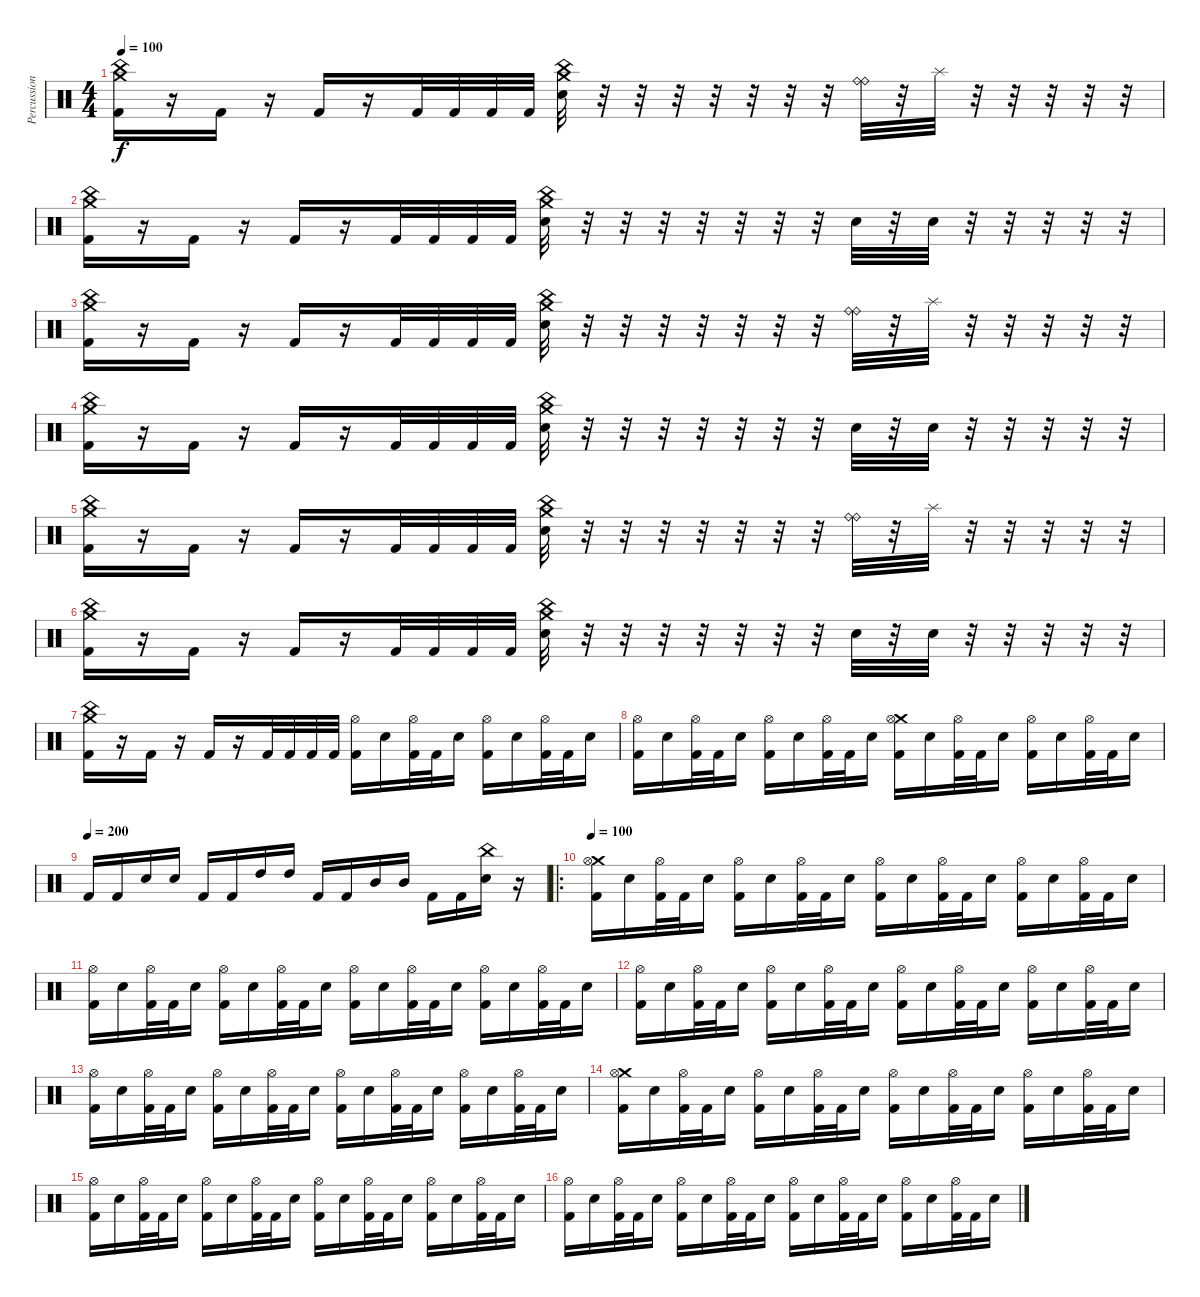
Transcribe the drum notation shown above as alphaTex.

\track ("Percussion" "Percussion") {instrument percussion}
\staff {score}
\articulation defaults
\ts (4 4)
\tempo 100
\clef neutral
\ks c
("China (hit)" "Crash medium (hit)" "Kick (hit) 2").16{dy f} r.16 "Kick (hit) 2".16 r.16 "Kick (hit) 2".16 r.16 "Kick (hit) 2".32 "Kick (hit) 2".32 "Kick (hit) 2".32 "Kick (hit) 2".32 ("China (hit)" "Crash medium (hit)" "Snare (hit) 2").32 r.32 r.32 r.32 r.32 r.32 r.32 r.32 ("Ride (bell)" "Ride (bell)").32 r.32 "Splash (hit)".32 r.32 r.32 r.32 r.32 r.32 |
("China (hit)" "Crash medium (hit)" "Kick (hit) 2").16 r.16 "Kick (hit) 2".16 r.16 "Kick (hit) 2".16 r.16 "Kick (hit) 2".32 "Kick (hit) 2".32 "Kick (hit) 2".32 "Kick (hit) 2".32 ("China (hit)" "Crash medium (hit)" "Snare (hit) 2").32 r.32 r.32 r.32 r.32 r.32 r.32 r.32 "Snare (hit) 2".32 r.32 "Snare (hit) 2".32 r.32 r.32 r.32 r.32 r.32 |
("China (hit)" "Crash medium (hit)" "Kick (hit) 2").16 r.16 "Kick (hit) 2".16 r.16 "Kick (hit) 2".16 r.16 "Kick (hit) 2".32 "Kick (hit) 2".32 "Kick (hit) 2".32 "Kick (hit) 2".32 ("China (hit)" "Crash medium (hit)" "Snare (hit) 2").32 r.32 r.32 r.32 r.32 r.32 r.32 r.32 ("Ride (bell)" "Ride (bell)").32 r.32 "Splash (hit)".32 r.32 r.32 r.32 r.32 r.32 |
("China (hit)" "Crash medium (hit)" "Kick (hit) 2").16 r.16 "Kick (hit) 2".16 r.16 "Kick (hit) 2".16 r.16 "Kick (hit) 2".32 "Kick (hit) 2".32 "Kick (hit) 2".32 "Kick (hit) 2".32 ("China (hit)" "Crash medium (hit)" "Snare (hit) 2").32 r.32 r.32 r.32 r.32 r.32 r.32 r.32 "Snare (hit) 2".32 r.32 "Snare (hit) 2".32 r.32 r.32 r.32 r.32 r.32 |
("China (hit)" "Crash medium (hit)" "Kick (hit) 2").16 r.16 "Kick (hit) 2".16 r.16 "Kick (hit) 2".16 r.16 "Kick (hit) 2".32 "Kick (hit) 2".32 "Kick (hit) 2".32 "Kick (hit) 2".32 ("China (hit)" "Crash medium (hit)" "Snare (hit) 2").32 r.32 r.32 r.32 r.32 r.32 r.32 r.32 ("Ride (bell)" "Ride (bell)").32 r.32 "Splash (hit)".32 r.32 r.32 r.32 r.32 r.32 |
("China (hit)" "Crash medium (hit)" "Kick (hit) 2").16 r.16 "Kick (hit) 2".16 r.16 "Kick (hit) 2".16 r.16 "Kick (hit) 2".32 "Kick (hit) 2".32 "Kick (hit) 2".32 "Kick (hit) 2".32 ("China (hit)" "Crash medium (hit)" "Snare (hit) 2").32 r.32 r.32 r.32 r.32 r.32 r.32 r.32 "Snare (hit) 2".32 r.32 "Snare (hit) 2".32 r.32 r.32 r.32 r.32 r.32 |
("China (hit)" "Crash medium (hit)" "Kick (hit) 2").16 r.16 "Kick (hit) 2".16 r.16 "Kick (hit) 2".16 r.16 "Kick (hit) 2".32 "Kick (hit) 2".32 "Kick (hit) 2".32 "Kick (hit) 2".32 ("Hi-Hat (open)" "Kick (hit) 2").16 "Snare (hit) 2".16 ("Hi-Hat (open)" "Kick (hit) 2").32 "Kick (hit) 2".32 "Snare (hit) 2".16 ("Hi-Hat (open)" "Kick (hit) 2").16 "Snare (hit) 2".16 ("Hi-Hat (open)" "Kick (hit) 2").32 "Kick (hit) 2".32 "Snare (hit) 2".16 |
("Hi-Hat (open)" "Kick (hit) 2").16 "Snare (hit) 2".16 ("Hi-Hat (open)" "Kick (hit) 2").32 "Kick (hit) 2".32 "Snare (hit) 2".16 ("Hi-Hat (open)" "Kick (hit) 2").16 "Snare (hit) 2".16 ("Hi-Hat (open)" "Kick (hit) 2").32 "Kick (hit) 2".32 "Snare (hit) 2".16 ("Crash medium (hit)" "Hi-Hat (open)" "Kick (hit) 2").16 "Snare (hit) 2".16 ("Hi-Hat (open)" "Kick (hit) 2").32 "Kick (hit) 2".32 "Snare (hit) 2".16 ("Hi-Hat (open)" "Kick (hit) 2").16 "Snare (hit) 2".16 ("Hi-Hat (open)" "Kick (hit) 2").32 "Kick (hit) 2".32 "Snare (hit) 2".16 |
\tempo (200)
"Kick (hit) 2".16 "Kick (hit) 2".16 "Snare (hit) 2".16 "Snare (hit) 2".16 "Kick (hit) 2".16 "Kick (hit) 2".16 "High Tom (hit)".16 "High Tom (hit)".16 "Kick (hit) 2".16 "Kick (hit) 2".16 "Mid Tom (hit)".16 "Mid Tom (hit)".16 "Kick (hit) 2".16 "Kick (hit) 2".16 ("China (hit)" "Snare (hit) 2").16 r.16 |
\ro
\tempo 100
("Crash medium (hit)" "Hi-Hat (open)" "Kick (hit) 2").16 "Snare (hit) 2".16 ("Hi-Hat (open)" "Kick (hit) 2").32 "Kick (hit) 2".32 "Snare (hit) 2".16 ("Hi-Hat (open)" "Kick (hit) 2").16 "Snare (hit) 2".16 ("Hi-Hat (open)" "Kick (hit) 2").32 "Kick (hit) 2".32 "Snare (hit) 2".16 ("Hi-Hat (open)" "Kick (hit) 2").16 "Snare (hit) 2".16 ("Hi-Hat (open)" "Kick (hit) 2").32 "Kick (hit) 2".32 "Snare (hit) 2".16 ("Hi-Hat (open)" "Kick (hit) 2").16 "Snare (hit) 2".16 ("Hi-Hat (open)" "Kick (hit) 2").32 "Kick (hit) 2".32 "Snare (hit) 2".16 |
("Hi-Hat (open)" "Kick (hit) 2").16 "Snare (hit) 2".16 ("Hi-Hat (open)" "Kick (hit) 2").32 "Kick (hit) 2".32 "Snare (hit) 2".16 ("Hi-Hat (open)" "Kick (hit) 2").16 "Snare (hit) 2".16 ("Hi-Hat (open)" "Kick (hit) 2").32 "Kick (hit) 2".32 "Snare (hit) 2".16 ("Hi-Hat (open)" "Kick (hit) 2").16 "Snare (hit) 2".16 ("Hi-Hat (open)" "Kick (hit) 2").32 "Kick (hit) 2".32 "Snare (hit) 2".16 ("Hi-Hat (open)" "Kick (hit) 2").16 "Snare (hit) 2".16 ("Hi-Hat (open)" "Kick (hit) 2").32 "Kick (hit) 2".32 "Snare (hit) 2".16 |
("Hi-Hat (open)" "Kick (hit) 2").16 "Snare (hit) 2".16 ("Hi-Hat (open)" "Kick (hit) 2").32 "Kick (hit) 2".32 "Snare (hit) 2".16 ("Hi-Hat (open)" "Kick (hit) 2").16 "Snare (hit) 2".16 ("Hi-Hat (open)" "Kick (hit) 2").32 "Kick (hit) 2".32 "Snare (hit) 2".16 ("Hi-Hat (open)" "Kick (hit) 2").16 "Snare (hit) 2".16 ("Hi-Hat (open)" "Kick (hit) 2").32 "Kick (hit) 2".32 "Snare (hit) 2".16 ("Hi-Hat (open)" "Kick (hit) 2").16 "Snare (hit) 2".16 ("Hi-Hat (open)" "Kick (hit) 2").32 "Kick (hit) 2".32 "Snare (hit) 2".16 |
("Hi-Hat (open)" "Kick (hit) 2").16 "Snare (hit) 2".16 ("Hi-Hat (open)" "Kick (hit) 2").32 "Kick (hit) 2".32 "Snare (hit) 2".16 ("Hi-Hat (open)" "Kick (hit) 2").16 "Snare (hit) 2".16 ("Hi-Hat (open)" "Kick (hit) 2").32 "Kick (hit) 2".32 "Snare (hit) 2".16 ("Hi-Hat (open)" "Kick (hit) 2").16 "Snare (hit) 2".16 ("Hi-Hat (open)" "Kick (hit) 2").32 "Kick (hit) 2".32 "Snare (hit) 2".16 ("Hi-Hat (open)" "Kick (hit) 2").16 "Snare (hit) 2".16 ("Hi-Hat (open)" "Kick (hit) 2").32 "Kick (hit) 2".32 "Snare (hit) 2".16 |
("Crash medium (hit)" "Hi-Hat (open)" "Kick (hit) 2").16 "Snare (hit) 2".16 ("Hi-Hat (open)" "Kick (hit) 2").32 "Kick (hit) 2".32 "Snare (hit) 2".16 ("Hi-Hat (open)" "Kick (hit) 2").16 "Snare (hit) 2".16 ("Hi-Hat (open)" "Kick (hit) 2").32 "Kick (hit) 2".32 "Snare (hit) 2".16 ("Hi-Hat (open)" "Kick (hit) 2").16 "Snare (hit) 2".16 ("Hi-Hat (open)" "Kick (hit) 2").32 "Kick (hit) 2".32 "Snare (hit) 2".16 ("Hi-Hat (open)" "Kick (hit) 2").16 "Snare (hit) 2".16 ("Hi-Hat (open)" "Kick (hit) 2").32 "Kick (hit) 2".32 "Snare (hit) 2".16 |
("Hi-Hat (open)" "Kick (hit) 2").16 "Snare (hit) 2".16 ("Hi-Hat (open)" "Kick (hit) 2").32 "Kick (hit) 2".32 "Snare (hit) 2".16 ("Hi-Hat (open)" "Kick (hit) 2").16 "Snare (hit) 2".16 ("Hi-Hat (open)" "Kick (hit) 2").32 "Kick (hit) 2".32 "Snare (hit) 2".16 ("Hi-Hat (open)" "Kick (hit) 2").16 "Snare (hit) 2".16 ("Hi-Hat (open)" "Kick (hit) 2").32 "Kick (hit) 2".32 "Snare (hit) 2".16 ("Hi-Hat (open)" "Kick (hit) 2").16 "Snare (hit) 2".16 ("Hi-Hat (open)" "Kick (hit) 2").32 "Kick (hit) 2".32 "Snare (hit) 2".16 |
("Hi-Hat (open)" "Kick (hit) 2").16 "Snare (hit) 2".16 ("Hi-Hat (open)" "Kick (hit) 2").32 "Kick (hit) 2".32 "Snare (hit) 2".16 ("Hi-Hat (open)" "Kick (hit) 2").16 "Snare (hit) 2".16 ("Hi-Hat (open)" "Kick (hit) 2").32 "Kick (hit) 2".32 "Snare (hit) 2".16 ("Hi-Hat (open)" "Kick (hit) 2").16 "Snare (hit) 2".16 ("Hi-Hat (open)" "Kick (hit) 2").32 "Kick (hit) 2".32 "Snare (hit) 2".16 ("Hi-Hat (open)" "Kick (hit) 2").16 "Snare (hit) 2".16 ("Hi-Hat (open)" "Kick (hit) 2").32 "Kick (hit) 2".32 "Snare (hit) 2".16
